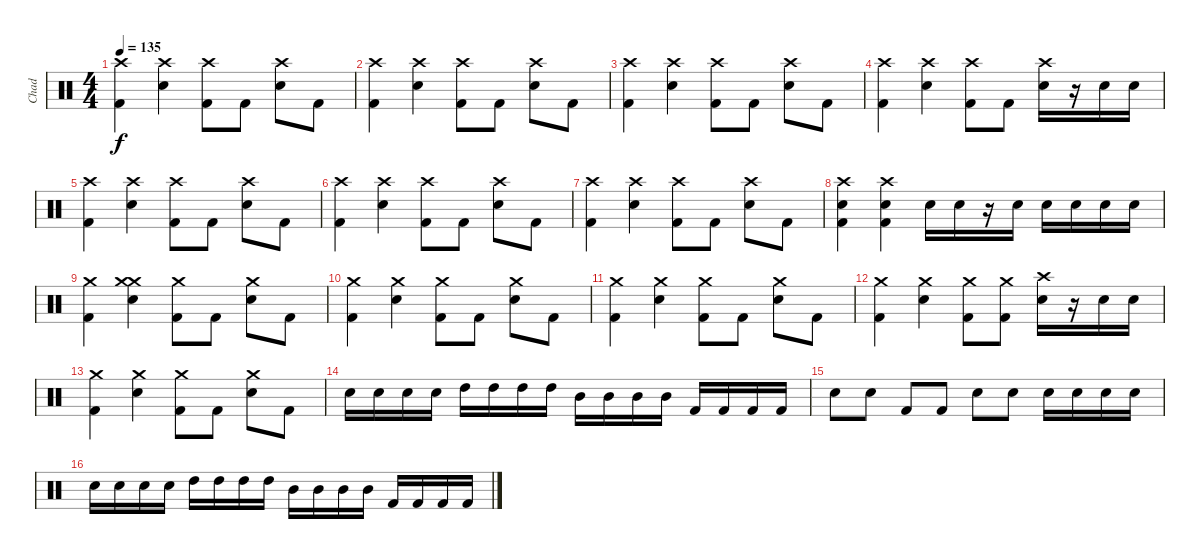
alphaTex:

\track ("Chad" "Chad") {instrument percussion}
\staff {score}
\articulation defaults
\ts (4 4)
\tempo 135
\clef neutral
\ks c
("Crash high (hit)" "Kick (hit) 2").4{dy f} ("Crash high (hit)" "Electric Snare (hit)").4 ("Crash high (hit)" "Kick (hit) 2").8 "Kick (hit) 2".8 ("Crash high (hit)" "Electric Snare (hit)").8 "Kick (hit) 2".8 |
("Crash high (hit)" "Kick (hit) 2").4 ("Crash high (hit)" "Electric Snare (hit)").4 ("Crash high (hit)" "Kick (hit) 2").8 "Kick (hit) 2".8 ("Crash high (hit)" "Electric Snare (hit)").8 "Kick (hit) 2".8 |
("Crash high (hit)" "Kick (hit) 2").4 ("Crash high (hit)" "Electric Snare (hit)").4 ("Crash high (hit)" "Kick (hit) 2").8 "Kick (hit) 2".8 ("Crash high (hit)" "Electric Snare (hit)").8 "Kick (hit) 2".8 |
("Crash high (hit)" "Kick (hit) 2").4 ("Crash high (hit)" "Electric Snare (hit)").4 ("Crash high (hit)" "Kick (hit) 2").8 "Kick (hit) 2".8 ("Crash high (hit)" "Electric Snare (hit)").16 r.16 "Electric Snare (hit)".16 "Electric Snare (hit)".16 |
("Crash high (hit)" "Kick (hit) 2").4 ("Crash high (hit)" "Electric Snare (hit)").4 ("Crash high (hit)" "Kick (hit) 2").8 "Kick (hit) 2".8 ("Crash high (hit)" "Electric Snare (hit)").8 "Kick (hit) 2".8 |
("Crash high (hit)" "Kick (hit) 2").4 ("Crash high (hit)" "Electric Snare (hit)").4 ("Crash high (hit)" "Kick (hit) 2").8 "Kick (hit) 2".8 ("Crash high (hit)" "Electric Snare (hit)").8 "Kick (hit) 2".8 |
("Crash high (hit)" "Kick (hit) 2").4 ("Crash high (hit)" "Electric Snare (hit)").4 ("Crash high (hit)" "Kick (hit) 2").8 "Kick (hit) 2".8 ("Crash high (hit)" "Electric Snare (hit)").8 "Kick (hit) 2".8 |
("Crash high (hit)" "Electric Snare (hit)" "Kick (hit) 2").4 ("Crash high (hit)" "Electric Snare (hit)" "Kick (hit) 2").4 "Electric Snare (hit)".16 "Electric Snare (hit)".16 r.16 "Electric Snare (hit)".16 "Electric Snare (hit)".16 "Electric Snare (hit)".16 "Electric Snare (hit)".16 "Electric Snare (hit)".16 |
("Crash medium (hit)" "Kick (hit) 2").4 ("Crash medium (hit)" "Crash medium (hit)" "Electric Snare (hit)").4 ("Crash medium (hit)" "Kick (hit) 2").8 "Kick (hit) 2".8 ("Crash medium (hit)" "Electric Snare (hit)").8 "Kick (hit) 2".8 |
("Crash medium (hit)" "Kick (hit) 2").4 ("Crash medium (hit)" "Electric Snare (hit)").4 ("Crash medium (hit)" "Kick (hit) 2").8 "Kick (hit) 2".8 ("Crash medium (hit)" "Electric Snare (hit)").8 "Kick (hit) 2".8 |
("Crash medium (hit)" "Kick (hit) 2").4 ("Crash medium (hit)" "Electric Snare (hit)").4 ("Crash medium (hit)" "Kick (hit) 2").8 "Kick (hit) 2".8 ("Crash medium (hit)" "Electric Snare (hit)").8 "Kick (hit) 2".8 |
("Crash medium (hit)" "Kick (hit) 2").4 ("Crash medium (hit)" "Electric Snare (hit)").4 ("Crash medium (hit)" "Kick (hit) 2").8 ("Crash medium (hit)" "Kick (hit) 2").8 ("Crash high (hit)" "Electric Snare (hit)").16 r.16 "Electric Snare (hit)".16 "Electric Snare (hit)".16 |
("Crash medium (hit)" "Kick (hit) 2").4 ("Crash medium (hit)" "Electric Snare (hit)").4 ("Crash medium (hit)" "Kick (hit) 2").8 "Kick (hit) 2".8 ("Crash medium (hit)" "Electric Snare (hit)").8 "Kick (hit) 2".8 |
"Electric Snare (hit)".16 "Electric Snare (hit)".16 "Electric Snare (hit)".16 "Electric Snare (hit)".16 "High Tom (hit)".16 "High Tom (hit)".16 "High Tom (hit)".16 "High Tom (hit)".16 "Mid Tom (hit)".16 "Mid Tom (hit)".16 "Mid Tom (hit)".16 "Mid Tom (hit)".16 "Kick (hit) 2".16 "Kick (hit) 2".16 "Kick (hit) 2".16 "Kick (hit) 2".16 |
"Electric Snare (hit)".8 "Electric Snare (hit)".8 "Kick (hit) 2".8 "Kick (hit) 2".8 "Electric Snare (hit)".8 "Electric Snare (hit)".8 "Electric Snare (hit)".16 "Electric Snare (hit)".16 "Electric Snare (hit)".16 "Electric Snare (hit)".16 |
"Electric Snare (hit)".16 "Electric Snare (hit)".16 "Electric Snare (hit)".16 "Electric Snare (hit)".16 "High Tom (hit)".16 "High Tom (hit)".16 "High Tom (hit)".16 "High Tom (hit)".16 "Mid Tom (hit)".16 "Mid Tom (hit)".16 "Mid Tom (hit)".16 "Mid Tom (hit)".16 "Kick (hit) 2".16 "Kick (hit) 2".16 "Kick (hit) 2".16 "Kick (hit) 2".16
